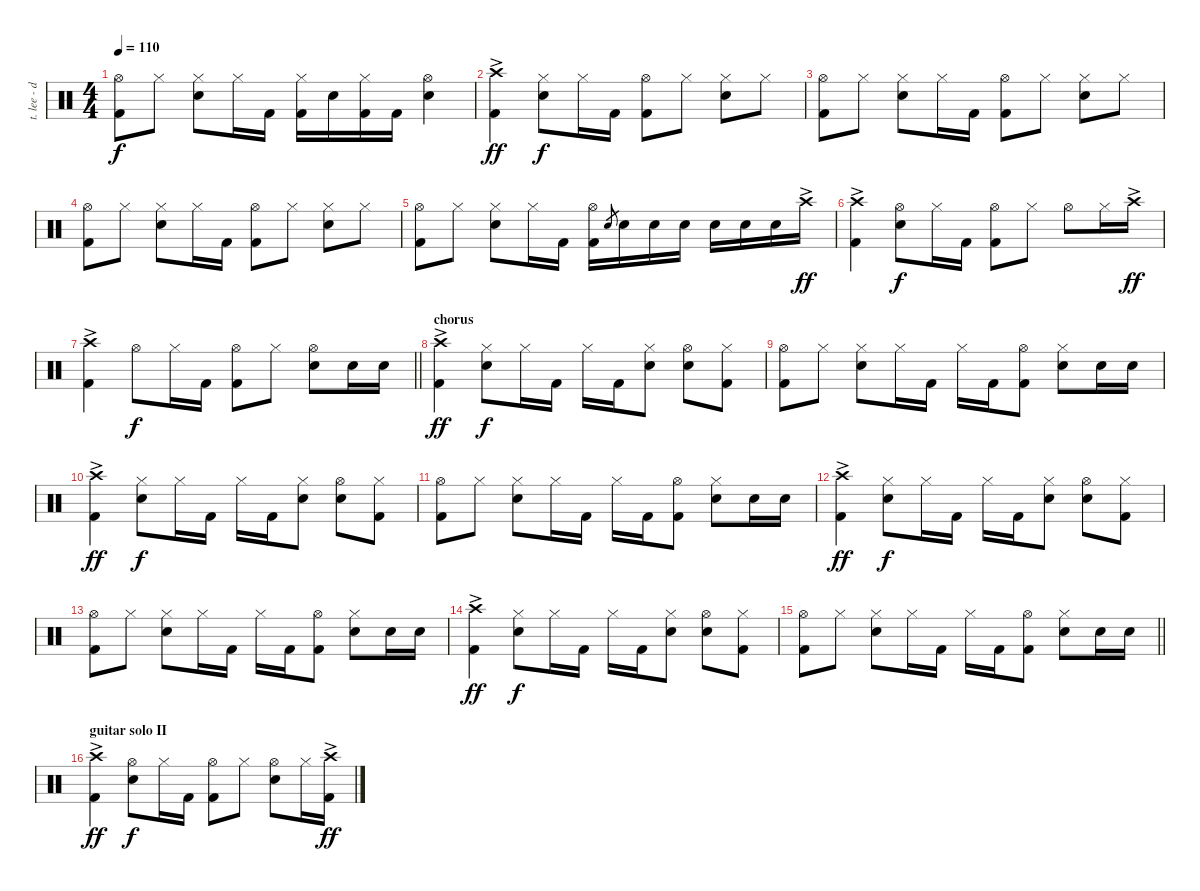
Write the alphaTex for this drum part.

\track ("t. lee - drums" "t. lee - d") {instrument percussion}
\staff {score}
\articulation defaults
\ts (4 4)
\tempo 110
\clef neutral
\ks c
("Hi-Hat (open)" "Kick (hit) 2").8{dy f} "Hi-Hat (closed)".8 ("Hi-Hat (closed)" "Snare (hit) 2").8 "Hi-Hat (closed)".16 "Kick (hit) 2".16 ("Hi-Hat (closed)" "Kick (hit) 2").16 "Snare (hit) 2".16 ("Hi-Hat (closed)" "Kick (hit) 2").16 "Kick (hit) 2".16 ("Hi-Hat (open)" "Snare (hit) 2").4 |
("Crash high (hit)"{ac} "Kick (hit) 2"{ac}).4{dy ff} ("Hi-Hat (closed)" "Snare (hit) 2").8{dy f} "Hi-Hat (closed)".16 "Kick (hit) 2".16 ("Hi-Hat (open)" "Kick (hit) 2").8 "Hi-Hat (closed)".8 ("Hi-Hat (closed)" "Snare (hit) 2").8 "Hi-Hat (closed)".8 |
("Hi-Hat (open)" "Kick (hit) 2").8 "Hi-Hat (closed)".8 ("Hi-Hat (closed)" "Snare (hit) 2").8 "Hi-Hat (closed)".16 "Kick (hit) 2".16 ("Hi-Hat (open)" "Kick (hit) 2").8 "Hi-Hat (closed)".8 ("Hi-Hat (closed)" "Snare (hit) 2").8 "Hi-Hat (closed)".8 |
("Hi-Hat (open)" "Kick (hit) 2").8 "Hi-Hat (closed)".8 ("Hi-Hat (closed)" "Snare (hit) 2").8 "Hi-Hat (closed)".16 "Kick (hit) 2".16 ("Hi-Hat (open)" "Kick (hit) 2").8 "Hi-Hat (closed)".8 ("Hi-Hat (closed)" "Snare (hit) 2").8 "Hi-Hat (closed)".8 |
("Hi-Hat (open)" "Kick (hit) 2").8 "Hi-Hat (closed)".8 ("Hi-Hat (closed)" "Snare (hit) 2").8 "Hi-Hat (closed)".16 "Kick (hit) 2".16 ("Hi-Hat (open)" "Kick (hit) 2").16 "Snare (hit) 2".8{gr} "Snare (hit) 2".16 "Snare (hit) 2".16 "Snare (hit) 2".16 "Snare (hit) 2".16 "Snare (hit) 2".16 "Snare (hit) 2".16 "Crash high (hit)"{ac}.16{dy ff} |
("Crash high (hit)"{ac} "Kick (hit) 2"{ac}).4 ("Hi-Hat (open)" "Snare (hit) 2").8{dy f} "Hi-Hat (closed)".16 "Kick (hit) 2".16 ("Hi-Hat (open)" "Kick (hit) 2").8 "Hi-Hat (closed)".8 "Hi-Hat (open)".8 "Hi-Hat (closed)".16 "Crash high (hit)"{ac}.16{dy ff} |
\barLineRight lightlight
("Crash high (hit)"{ac} "Kick (hit) 2"{ac}).4 "Hi-Hat (open)".8{dy f} "Hi-Hat (closed)".16 "Kick (hit) 2".16 ("Hi-Hat (open)" "Kick (hit) 2").8 "Hi-Hat (closed)".8 ("Hi-Hat (open)" "Snare (hit) 2").8 "Snare (hit) 2".16 "Snare (hit) 2".16 |
\section ("" "chorus")
("Crash high (hit)"{ac} "Kick (hit) 2"{ac}).4{dy ff} ("Hi-Hat (closed)" "Snare (hit) 2").8{dy f} "Hi-Hat (closed)".16 "Kick (hit) 2".16 "Hi-Hat (closed)".16 "Kick (hit) 2".16 ("Hi-Hat (closed)" "Snare (hit) 2").8 ("Hi-Hat (open)" "Snare (hit) 2").8 ("Hi-Hat (closed)" "Kick (hit) 2").8 |
("Hi-Hat (open)" "Kick (hit) 2").8 "Hi-Hat (closed)".8 ("Hi-Hat (closed)" "Snare (hit) 2").8 "Hi-Hat (closed)".16 "Kick (hit) 2".16 "Hi-Hat (closed)".16 "Kick (hit) 2".16 ("Hi-Hat (open)" "Kick (hit) 2").8 ("Hi-Hat (closed)" "Snare (hit) 2").8 "Snare (hit) 2".16 "Snare (hit) 2".16 |
("Crash high (hit)"{ac} "Kick (hit) 2"{ac}).4{dy ff} ("Hi-Hat (closed)" "Snare (hit) 2").8{dy f} "Hi-Hat (closed)".16 "Kick (hit) 2".16 "Hi-Hat (closed)".16 "Kick (hit) 2".16 ("Hi-Hat (closed)" "Snare (hit) 2").8 ("Hi-Hat (open)" "Snare (hit) 2").8 ("Hi-Hat (closed)" "Kick (hit) 2").8 |
("Hi-Hat (open)" "Kick (hit) 2").8 "Hi-Hat (closed)".8 ("Hi-Hat (closed)" "Snare (hit) 2").8 "Hi-Hat (closed)".16 "Kick (hit) 2".16 "Hi-Hat (closed)".16 "Kick (hit) 2".16 ("Hi-Hat (open)" "Kick (hit) 2").8 ("Hi-Hat (closed)" "Snare (hit) 2").8 "Snare (hit) 2".16 "Snare (hit) 2".16 |
("Crash high (hit)"{ac} "Kick (hit) 2"{ac}).4{dy ff} ("Hi-Hat (closed)" "Snare (hit) 2").8{dy f} "Hi-Hat (closed)".16 "Kick (hit) 2".16 "Hi-Hat (closed)".16 "Kick (hit) 2".16 ("Hi-Hat (closed)" "Snare (hit) 2").8 ("Hi-Hat (open)" "Snare (hit) 2").8 ("Hi-Hat (closed)" "Kick (hit) 2").8 |
("Hi-Hat (open)" "Kick (hit) 2").8 "Hi-Hat (closed)".8 ("Hi-Hat (closed)" "Snare (hit) 2").8 "Hi-Hat (closed)".16 "Kick (hit) 2".16 "Hi-Hat (closed)".16 "Kick (hit) 2".16 ("Hi-Hat (open)" "Kick (hit) 2").8 ("Hi-Hat (closed)" "Snare (hit) 2").8 "Snare (hit) 2".16 "Snare (hit) 2".16 |
("Crash high (hit)"{ac} "Kick (hit) 2"{ac}).4{dy ff} ("Hi-Hat (closed)" "Snare (hit) 2").8{dy f} "Hi-Hat (closed)".16 "Kick (hit) 2".16 "Hi-Hat (closed)".16 "Kick (hit) 2".16 ("Hi-Hat (closed)" "Snare (hit) 2").8 ("Hi-Hat (open)" "Snare (hit) 2").8 ("Hi-Hat (closed)" "Kick (hit) 2").8 |
\barLineRight lightlight
("Hi-Hat (open)" "Kick (hit) 2").8 "Hi-Hat (closed)".8 ("Hi-Hat (closed)" "Snare (hit) 2").8 "Hi-Hat (closed)".16 "Kick (hit) 2".16 "Hi-Hat (closed)".16 "Kick (hit) 2".16 ("Hi-Hat (open)" "Kick (hit) 2").8 ("Hi-Hat (closed)" "Snare (hit) 2").8 "Snare (hit) 2".16 "Snare (hit) 2".16 |
\section ("" "guitar solo II")
("Crash high (hit)"{ac} "Kick (hit) 2"{ac}).4{dy ff} ("Hi-Hat (open)" "Snare (hit) 2").8{dy f} "Hi-Hat (closed)".16 "Kick (hit) 2".16 ("Hi-Hat (open)" "Kick (hit) 2").8 "Hi-Hat (closed)".8 ("Hi-Hat (open)" "Snare (hit) 2").8 "Hi-Hat (closed)".16 ("Crash high (hit)"{ac} "Kick (hit) 2").16{dy ff}
